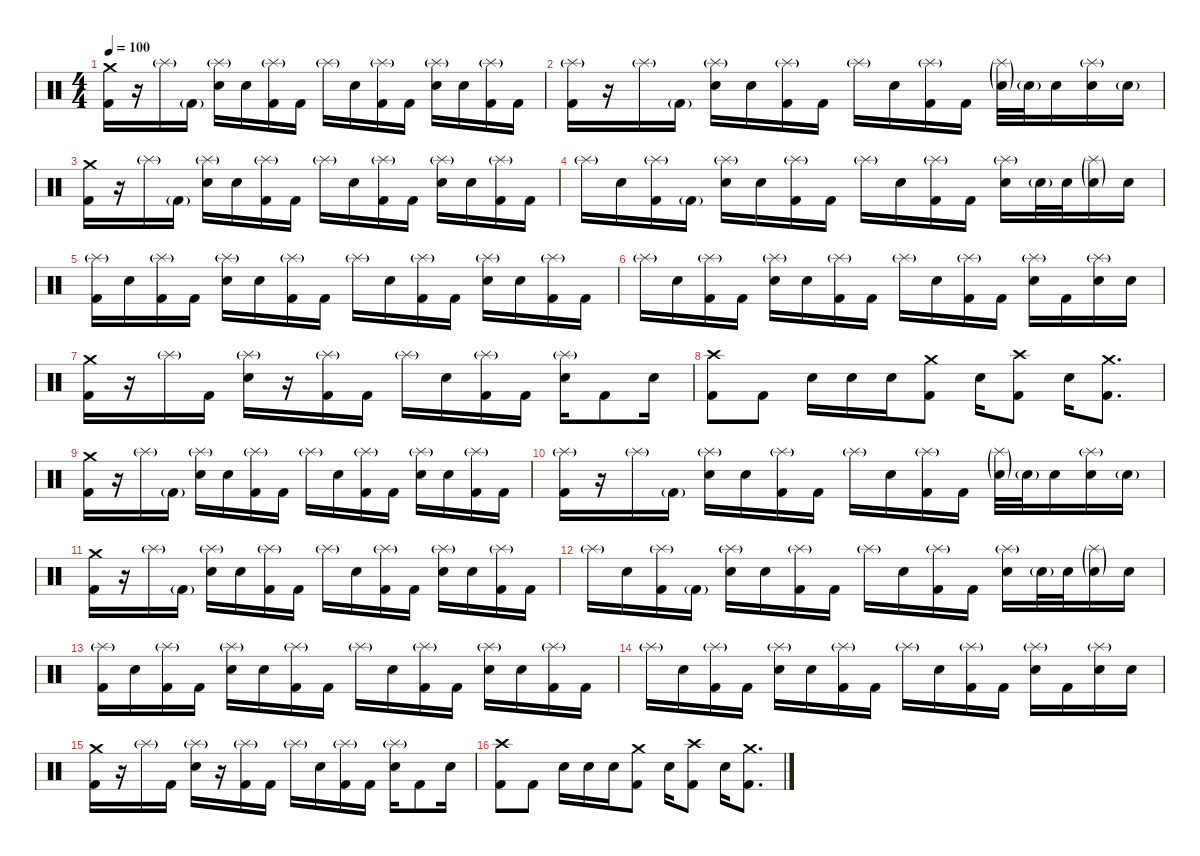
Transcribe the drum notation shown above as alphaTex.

\defaultSystemsLayout 4
\hideDynamics
\bracketExtendMode nobrackets
\singleTrackTrackNamePolicy hidden
\multiTrackTrackNamePolicy hidden
\firstSystemTrackNameMode fullname
\firstSystemTrackNameOrientation horizontal
\otherSystemsTrackNameOrientation horizontal
\track ("Drums" "drm.") {instrument percussion}
\staff {score}
\articulation defaults
\ts (4 4)
\tempo 100
\clef neutral
\ks c
("Crash medium (hit)" "Kick (hit) 2").16{dy f beam Down} r.16{beam Down} "Splash (hit)"{g}.16{dy mf beam Down} "Kick (hit) 2"{g}.16{dy f beam Down} ("Splash (hit)"{g} "Snare (hit) 2").16{beam Down} "Snare (hit) 2".16{beam Down} ("Splash (hit)"{g} "Kick (hit) 2").16{beam Down} "Kick (hit) 2".16{beam Down} "Splash (hit)"{g}.16{dy mf beam Down} "Snare (hit) 2".16{dy f beam Down} ("Splash (hit)"{g} "Kick (hit) 2").16{beam Down} "Kick (hit) 2".16{beam Down} ("Splash (hit)"{g} "Snare (hit) 2").16{beam Down} "Snare (hit) 2".16{beam Down} ("Splash (hit)"{g} "Kick (hit) 2").16{beam Down} "Kick (hit) 2".16{beam Down} |
("Splash (hit)"{g} "Kick (hit) 2").16{beam Down} r.16{beam Down} "Splash (hit)"{g}.16{dy mf beam Down} "Kick (hit) 2"{g}.16{dy f beam Down} ("Splash (hit)"{g} "Snare (hit) 2").16{beam Down} "Snare (hit) 2".16{beam Down} ("Splash (hit)"{g} "Kick (hit) 2").16{beam Down} "Kick (hit) 2".16{beam Down} "Splash (hit)"{g}.16{dy mf beam Down} "Snare (hit) 2".16{dy f beam Down} ("Splash (hit)"{g} "Kick (hit) 2").16{beam Down} "Kick (hit) 2".16{beam Down} ("Splash (hit)"{g} "Snare (hit) 2"{g}).32{dy mf beam Down} "Snare (hit) 2"{g}.32{dy f beam Down} "Snare (hit) 2".16{beam Down} ("Splash (hit)"{g} "Snare (hit) 2").16{beam Down} "Snare (hit) 2"{g}.16{beam Down} |
("Crash medium (hit)" "Kick (hit) 2").16{beam Down} r.16{beam Down} "Splash (hit)"{g}.16{dy mf beam Down} "Kick (hit) 2"{g}.16{beam Down} ("Splash (hit)"{g} "Snare (hit) 2").16{dy f beam Down} "Snare (hit) 2".16{beam Down} ("Splash (hit)"{g} "Kick (hit) 2").16{beam Down} "Kick (hit) 2".16{beam Down} "Splash (hit)"{g}.16{dy mf beam Down} "Snare (hit) 2".16{dy f beam Down} ("Splash (hit)"{g} "Kick (hit) 2").16{beam Down} "Kick (hit) 2".16{beam Down} ("Splash (hit)"{g} "Snare (hit) 2").16{beam Down} "Snare (hit) 2".16{beam Down} ("Splash (hit)"{g} "Kick (hit) 2").16{beam Down} "Kick (hit) 2".16{beam Down} |
"Splash (hit)"{g}.16{dy mf beam Down} "Snare (hit) 2".16{dy f beam Down} ("Splash (hit)"{g} "Kick (hit) 2").16{beam Down} "Kick (hit) 2"{g}.16{dy mf beam Down} ("Splash (hit)"{g} "Snare (hit) 2").16{dy f beam Down} "Snare (hit) 2".16{beam Down} ("Splash (hit)"{g} "Kick (hit) 2").16{beam Down} "Kick (hit) 2".16{beam Down} "Splash (hit)"{g}.16{dy mf beam Down} "Snare (hit) 2".16{dy f beam Down} ("Splash (hit)"{g} "Kick (hit) 2").16{beam Down} "Kick (hit) 2".16{beam Down} ("Splash (hit)"{g} "Snare (hit) 2").16{beam Down} "Snare (hit) 2"{g}.32{beam Down} "Snare (hit) 2".32{beam Down} ("Splash (hit)"{g} "Snare (hit) 2"{g}).16{dy mf beam Down} "Snare (hit) 2".16{dy f beam Down} |
("Splash (hit)"{g} "Kick (hit) 2").16{beam Down} "Snare (hit) 2".16{beam Down} ("Splash (hit)"{g} "Kick (hit) 2").16{beam Down} "Kick (hit) 2".16{beam Down} ("Splash (hit)"{g} "Snare (hit) 2").16{beam Down} "Snare (hit) 2".16{beam Down} ("Splash (hit)"{g} "Kick (hit) 2").16{beam Down} "Kick (hit) 2".16{beam Down} "Splash (hit)"{g}.16{dy mf beam Down} "Snare (hit) 2".16{dy f beam Down} ("Splash (hit)"{g} "Kick (hit) 2").16{beam Down} "Kick (hit) 2".16{beam Down} ("Splash (hit)"{g} "Snare (hit) 2").16{beam Down} "Snare (hit) 2".16{beam Down} ("Splash (hit)"{g} "Kick (hit) 2").16{beam Down} "Kick (hit) 2".16{beam Down} |
"Splash (hit)"{g}.16{dy mf beam Down} "Snare (hit) 2".16{dy f beam Down} ("Splash (hit)"{g} "Kick (hit) 2").16{beam Down} "Kick (hit) 2".16{beam Down} ("Splash (hit)"{g} "Snare (hit) 2").16{beam Down} "Snare (hit) 2".16{beam Down} ("Splash (hit)"{g} "Kick (hit) 2").16{beam Down} "Kick (hit) 2".16{beam Down} "Splash (hit)"{g}.16{dy mf beam Down} "Snare (hit) 2".16{dy f beam Down} ("Splash (hit)"{g} "Kick (hit) 2").16{beam Down} "Kick (hit) 2".16{beam Down} ("Splash (hit)"{g} "Snare (hit) 2").16{beam Down} "Kick (hit) 2".16{beam Down} ("Splash (hit)"{g} "Snare (hit) 2").16{beam Down} "Snare (hit) 2".16{beam Down} |
("Crash medium (hit)" "Kick (hit) 2").16{beam Down} r.16{beam Down} "Splash (hit)"{g}.16{dy mf beam Down} "Kick (hit) 2".16{dy f beam Down} ("Splash (hit)"{g} "Snare (hit) 2").16{beam Down} r.16{beam Down} ("Splash (hit)"{g} "Kick (hit) 2").16{beam Down} "Kick (hit) 2".16{beam Down} "Splash (hit)"{g}.16{dy mf beam Down} "Snare (hit) 2".16{dy f beam Down} ("Splash (hit)"{g} "Kick (hit) 2").16{beam Down} "Kick (hit) 2".16{beam Down} ("Splash (hit)"{g} "Snare (hit) 2").16{beam Down} "Kick (hit) 2".8{beam Down} "Snare (hit) 2".16{beam Down} |
("Crash high (hit)" "Kick (hit) 2").8{beam Down} "Kick (hit) 2".8{beam Down} "Snare (hit) 2".16{beam Down} "Snare (hit) 2".16{beam Down} "Snare (hit) 2".16{beam Down} ("Crash medium (hit)" "Kick (hit) 2").8{beam Down} "Snare (hit) 2".16{beam Down} ("Crash high (hit)" "Kick (hit) 2").8{beam Down} "Snare (hit) 2".16{beam Down} ("Crash medium (hit)" "Kick (hit) 2").8{d beam Down} |
("Crash medium (hit)" "Kick (hit) 2").16{beam Down} r.16{beam Down} "Splash (hit)"{g}.16{dy mf beam Down} "Kick (hit) 2"{g}.16{dy f beam Down} ("Splash (hit)"{g} "Snare (hit) 2").16{beam Down} "Snare (hit) 2".16{beam Down} ("Splash (hit)"{g} "Kick (hit) 2").16{beam Down} "Kick (hit) 2".16{beam Down} "Splash (hit)"{g}.16{dy mf beam Down} "Snare (hit) 2".16{dy f beam Down} ("Splash (hit)"{g} "Kick (hit) 2").16{beam Down} "Kick (hit) 2".16{beam Down} ("Splash (hit)"{g} "Snare (hit) 2").16{beam Down} "Snare (hit) 2".16{beam Down} ("Splash (hit)"{g} "Kick (hit) 2").16{beam Down} "Kick (hit) 2".16{beam Down} |
("Splash (hit)"{g} "Kick (hit) 2").16{beam Down} r.16{beam Down} "Splash (hit)"{g}.16{dy mf beam Down} "Kick (hit) 2"{g}.16{dy f beam Down} ("Splash (hit)"{g} "Snare (hit) 2").16{beam Down} "Snare (hit) 2".16{beam Down} ("Splash (hit)"{g} "Kick (hit) 2").16{beam Down} "Kick (hit) 2".16{beam Down} "Splash (hit)"{g}.16{dy mf beam Down} "Snare (hit) 2".16{dy f beam Down} ("Splash (hit)"{g} "Kick (hit) 2").16{beam Down} "Kick (hit) 2".16{beam Down} ("Splash (hit)"{g} "Snare (hit) 2"{g}).32{dy mf beam Down} "Snare (hit) 2"{g}.32{dy f beam Down} "Snare (hit) 2".16{beam Down} ("Splash (hit)"{g} "Snare (hit) 2").16{beam Down} "Snare (hit) 2"{g}.16{beam Down} |
("Crash medium (hit)" "Kick (hit) 2").16{beam Down} r.16{beam Down} "Splash (hit)"{g}.16{dy mf beam Down} "Kick (hit) 2"{g}.16{beam Down} ("Splash (hit)"{g} "Snare (hit) 2").16{dy f beam Down} "Snare (hit) 2".16{beam Down} ("Splash (hit)"{g} "Kick (hit) 2").16{beam Down} "Kick (hit) 2".16{beam Down} "Splash (hit)"{g}.16{dy mf beam Down} "Snare (hit) 2".16{dy f beam Down} ("Splash (hit)"{g} "Kick (hit) 2").16{beam Down} "Kick (hit) 2".16{beam Down} ("Splash (hit)"{g} "Snare (hit) 2").16{beam Down} "Snare (hit) 2".16{beam Down} ("Splash (hit)"{g} "Kick (hit) 2").16{beam Down} "Kick (hit) 2".16{beam Down} |
"Splash (hit)"{g}.16{dy mf beam Down} "Snare (hit) 2".16{dy f beam Down} ("Splash (hit)"{g} "Kick (hit) 2").16{beam Down} "Kick (hit) 2"{g}.16{dy mf beam Down} ("Splash (hit)"{g} "Snare (hit) 2").16{dy f beam Down} "Snare (hit) 2".16{beam Down} ("Splash (hit)"{g} "Kick (hit) 2").16{beam Down} "Kick (hit) 2".16{beam Down} "Splash (hit)"{g}.16{dy mf beam Down} "Snare (hit) 2".16{dy f beam Down} ("Splash (hit)"{g} "Kick (hit) 2").16{beam Down} "Kick (hit) 2".16{beam Down} ("Splash (hit)"{g} "Snare (hit) 2").16{beam Down} "Snare (hit) 2"{g}.32{beam Down} "Snare (hit) 2".32{beam Down} ("Splash (hit)"{g} "Snare (hit) 2"{g}).16{dy mf beam Down} "Snare (hit) 2".16{dy f beam Down} |
("Splash (hit)"{g} "Kick (hit) 2").16{beam Down} "Snare (hit) 2".16{beam Down} ("Splash (hit)"{g} "Kick (hit) 2").16{beam Down} "Kick (hit) 2".16{beam Down} ("Splash (hit)"{g} "Snare (hit) 2").16{beam Down} "Snare (hit) 2".16{beam Down} ("Splash (hit)"{g} "Kick (hit) 2").16{beam Down} "Kick (hit) 2".16{beam Down} "Splash (hit)"{g}.16{dy mf beam Down} "Snare (hit) 2".16{dy f beam Down} ("Splash (hit)"{g} "Kick (hit) 2").16{beam Down} "Kick (hit) 2".16{beam Down} ("Splash (hit)"{g} "Snare (hit) 2").16{beam Down} "Snare (hit) 2".16{beam Down} ("Splash (hit)"{g} "Kick (hit) 2").16{beam Down} "Kick (hit) 2".16{beam Down} |
"Splash (hit)"{g}.16{dy mf beam Down} "Snare (hit) 2".16{dy f beam Down} ("Splash (hit)"{g} "Kick (hit) 2").16{beam Down} "Kick (hit) 2".16{beam Down} ("Splash (hit)"{g} "Snare (hit) 2").16{beam Down} "Snare (hit) 2".16{beam Down} ("Splash (hit)"{g} "Kick (hit) 2").16{beam Down} "Kick (hit) 2".16{beam Down} "Splash (hit)"{g}.16{dy mf beam Down} "Snare (hit) 2".16{dy f beam Down} ("Splash (hit)"{g} "Kick (hit) 2").16{beam Down} "Kick (hit) 2".16{beam Down} ("Splash (hit)"{g} "Snare (hit) 2").16{beam Down} "Kick (hit) 2".16{beam Down} ("Splash (hit)"{g} "Snare (hit) 2").16{beam Down} "Snare (hit) 2".16{beam Down} |
("Crash medium (hit)" "Kick (hit) 2").16{beam Down} r.16{beam Down} "Splash (hit)"{g}.16{dy mf beam Down} "Kick (hit) 2".16{dy f beam Down} ("Splash (hit)"{g} "Snare (hit) 2").16{beam Down} r.16{beam Down} ("Splash (hit)"{g} "Kick (hit) 2").16{beam Down} "Kick (hit) 2".16{beam Down} "Splash (hit)"{g}.16{dy mf beam Down} "Snare (hit) 2".16{dy f beam Down} ("Splash (hit)"{g} "Kick (hit) 2").16{beam Down} "Kick (hit) 2".16{beam Down} ("Splash (hit)"{g} "Snare (hit) 2").16{beam Down} "Kick (hit) 2".8{beam Down} "Snare (hit) 2".16{beam Down} |
("Crash high (hit)" "Kick (hit) 2").8{beam Down} "Kick (hit) 2".8{beam Down} "Snare (hit) 2".16{beam Down} "Snare (hit) 2".16{beam Down} "Snare (hit) 2".16{beam Down} ("Crash medium (hit)" "Kick (hit) 2").8{beam Down} "Snare (hit) 2".16{beam Down} ("Crash high (hit)" "Kick (hit) 2").8{beam Down} "Snare (hit) 2".16{beam Down} ("Crash medium (hit)" "Kick (hit) 2").8{d beam Down}
